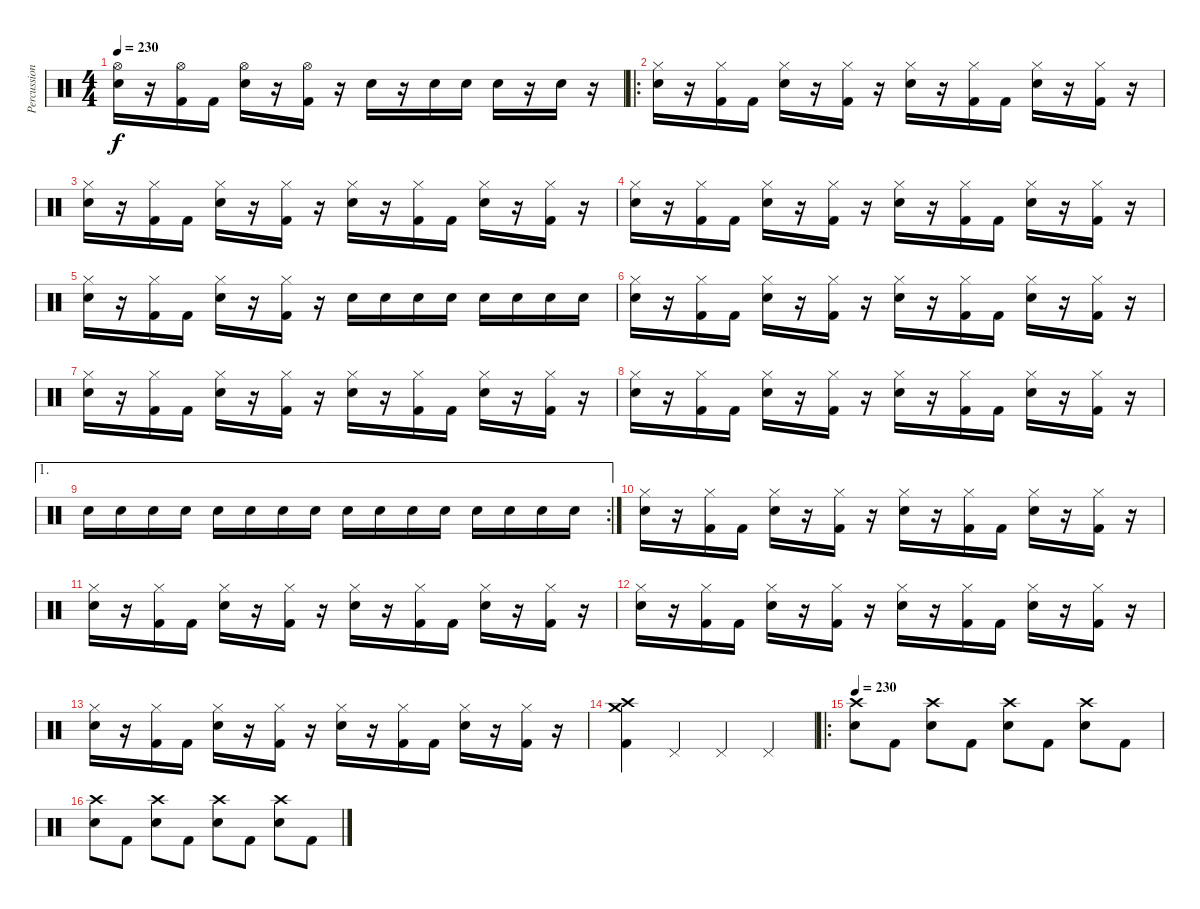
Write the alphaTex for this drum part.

\track ("Percussion" "Percussion") {instrument percussion}
\staff {score}
\articulation defaults
\ts (4 4)
\tempo 230
\clef neutral
\ks c
("Hi-Hat (open)" "Electric Snare (hit)").16{dy f} r.16 ("Hi-Hat (open)" "Kick (hit) 2").16 "Kick (hit) 2".16 ("Hi-Hat (open)" "Electric Snare (hit)").16 r.16 ("Hi-Hat (open)" "Kick (hit) 2").16 r.16 "Electric Snare (hit)".16 r.16 "Electric Snare (hit)".16 "Electric Snare (hit)".16 "Electric Snare (hit)".16 r.16 "Electric Snare (hit)".16 r.16 |
\ro
("Hi-Hat (closed)" "Electric Snare (hit)").16 r.16 ("Hi-Hat (closed)" "Kick (hit) 2").16 "Kick (hit) 2".16 ("Hi-Hat (closed)" "Electric Snare (hit)").16 r.16 ("Hi-Hat (closed)" "Kick (hit) 2").16 r.16 ("Hi-Hat (closed)" "Electric Snare (hit)").16 r.16 ("Hi-Hat (closed)" "Kick (hit) 2").16 "Kick (hit) 2".16 ("Hi-Hat (closed)" "Electric Snare (hit)").16 r.16 ("Hi-Hat (closed)" "Kick (hit) 2").16 r.16 |
("Hi-Hat (closed)" "Electric Snare (hit)").16 r.16 ("Hi-Hat (closed)" "Kick (hit) 2").16 "Kick (hit) 2".16 ("Hi-Hat (closed)" "Electric Snare (hit)").16 r.16 ("Hi-Hat (closed)" "Kick (hit) 2").16 r.16 ("Hi-Hat (closed)" "Electric Snare (hit)").16 r.16 ("Hi-Hat (closed)" "Kick (hit) 2").16 "Kick (hit) 2".16 ("Hi-Hat (closed)" "Electric Snare (hit)").16 r.16 ("Hi-Hat (closed)" "Kick (hit) 2").16 r.16 |
("Hi-Hat (closed)" "Electric Snare (hit)").16 r.16 ("Hi-Hat (closed)" "Kick (hit) 2").16 "Kick (hit) 2".16 ("Hi-Hat (closed)" "Electric Snare (hit)").16 r.16 ("Hi-Hat (closed)" "Kick (hit) 2").16 r.16 ("Hi-Hat (closed)" "Electric Snare (hit)").16 r.16 ("Hi-Hat (closed)" "Kick (hit) 2").16 "Kick (hit) 2".16 ("Hi-Hat (closed)" "Electric Snare (hit)").16 r.16 ("Hi-Hat (closed)" "Kick (hit) 2").16 r.16 |
("Hi-Hat (closed)" "Electric Snare (hit)").16 r.16 ("Hi-Hat (closed)" "Kick (hit) 2").16 "Kick (hit) 2".16 ("Hi-Hat (closed)" "Electric Snare (hit)").16 r.16 ("Hi-Hat (closed)" "Kick (hit) 2").16 r.16 "Electric Snare (hit)".16 "Electric Snare (hit)".16 "Electric Snare (hit)".16 "Electric Snare (hit)".16 "Electric Snare (hit)".16 "Electric Snare (hit)".16 "Electric Snare (hit)".16 "Electric Snare (hit)".16 |
("Hi-Hat (closed)" "Electric Snare (hit)").16 r.16 ("Hi-Hat (closed)" "Kick (hit) 2").16 "Kick (hit) 2".16 ("Hi-Hat (closed)" "Electric Snare (hit)").16 r.16 ("Hi-Hat (closed)" "Kick (hit) 2").16 r.16 ("Hi-Hat (closed)" "Electric Snare (hit)").16 r.16 ("Hi-Hat (closed)" "Kick (hit) 2").16 "Kick (hit) 2".16 ("Hi-Hat (closed)" "Electric Snare (hit)").16 r.16 ("Hi-Hat (closed)" "Kick (hit) 2").16 r.16 |
("Hi-Hat (closed)" "Electric Snare (hit)").16 r.16 ("Hi-Hat (closed)" "Kick (hit) 2").16 "Kick (hit) 2".16 ("Hi-Hat (closed)" "Electric Snare (hit)").16 r.16 ("Hi-Hat (closed)" "Kick (hit) 2").16 r.16 ("Hi-Hat (closed)" "Electric Snare (hit)").16 r.16 ("Hi-Hat (closed)" "Kick (hit) 2").16 "Kick (hit) 2".16 ("Hi-Hat (closed)" "Electric Snare (hit)").16 r.16 ("Hi-Hat (closed)" "Kick (hit) 2").16 r.16 |
("Hi-Hat (closed)" "Electric Snare (hit)").16 r.16 ("Hi-Hat (closed)" "Kick (hit) 2").16 "Kick (hit) 2".16 ("Hi-Hat (closed)" "Electric Snare (hit)").16 r.16 ("Hi-Hat (closed)" "Kick (hit) 2").16 r.16 ("Hi-Hat (closed)" "Electric Snare (hit)").16 r.16 ("Hi-Hat (closed)" "Kick (hit) 2").16 "Kick (hit) 2".16 ("Hi-Hat (closed)" "Electric Snare (hit)").16 r.16 ("Hi-Hat (closed)" "Kick (hit) 2").16 r.16 |
\ae 1
\rc 2 "Electric Snare (hit)".16 "Electric Snare (hit)".16 "Electric Snare (hit)".16 "Electric Snare (hit)".16 "Electric Snare (hit)".16 "Electric Snare (hit)".16 "Electric Snare (hit)".16 "Electric Snare (hit)".16 "Electric Snare (hit)".16 "Electric Snare (hit)".16 "Electric Snare (hit)".16 "Electric Snare (hit)".16 "Electric Snare (hit)".16 "Electric Snare (hit)".16 "Electric Snare (hit)".16 "Electric Snare (hit)".16
|
("Hi-Hat (closed)" "Electric Snare (hit)").16 r.16 ("Hi-Hat (closed)" "Kick (hit) 2").16 "Kick (hit) 2".16 ("Hi-Hat (closed)" "Electric Snare (hit)").16 r.16 ("Hi-Hat (closed)" "Kick (hit) 2").16 r.16 ("Hi-Hat (closed)" "Electric Snare (hit)").16 r.16 ("Hi-Hat (closed)" "Kick (hit) 2").16 "Kick (hit) 2".16 ("Hi-Hat (closed)" "Electric Snare (hit)").16 r.16 ("Hi-Hat (closed)" "Kick (hit) 2").16 r.16 |
("Hi-Hat (closed)" "Electric Snare (hit)").16 r.16 ("Hi-Hat (closed)" "Kick (hit) 2").16 "Kick (hit) 2".16 ("Hi-Hat (closed)" "Electric Snare (hit)").16 r.16 ("Hi-Hat (closed)" "Kick (hit) 2").16 r.16 ("Hi-Hat (closed)" "Electric Snare (hit)").16 r.16 ("Hi-Hat (closed)" "Kick (hit) 2").16 "Kick (hit) 2".16 ("Hi-Hat (closed)" "Electric Snare (hit)").16 r.16 ("Hi-Hat (closed)" "Kick (hit) 2").16 r.16 |
("Hi-Hat (closed)" "Electric Snare (hit)").16 r.16 ("Hi-Hat (closed)" "Kick (hit) 2").16 "Kick (hit) 2".16 ("Hi-Hat (closed)" "Electric Snare (hit)").16 r.16 ("Hi-Hat (closed)" "Kick (hit) 2").16 r.16 ("Hi-Hat (closed)" "Electric Snare (hit)").16 r.16 ("Hi-Hat (closed)" "Kick (hit) 2").16 "Kick (hit) 2".16 ("Hi-Hat (closed)" "Electric Snare (hit)").16 r.16 ("Hi-Hat (closed)" "Kick (hit) 2").16 r.16 |
("Hi-Hat (closed)" "Electric Snare (hit)").16 r.16 ("Hi-Hat (closed)" "Kick (hit) 2").16 "Kick (hit) 2".16 ("Hi-Hat (closed)" "Electric Snare (hit)").16 r.16 ("Hi-Hat (closed)" "Kick (hit) 2").16 r.16 ("Hi-Hat (closed)" "Electric Snare (hit)").16 r.16 ("Hi-Hat (closed)" "Kick (hit) 2").16 "Kick (hit) 2".16 ("Hi-Hat (closed)" "Electric Snare (hit)").16 r.16 ("Hi-Hat (closed)" "Kick (hit) 2").16 r.16 |
("Crash high (hit)" "Crash medium (hit)" "Kick (hit) 2").4 "Pedal Hi-Hat (hit)".4 "Pedal Hi-Hat (hit)".4 "Pedal Hi-Hat (hit)".4 |
\ro
\tempo 230
("Crash high (hit)" "Electric Snare (hit)").8 "Kick (hit) 2".8 ("Crash high (hit)" "Electric Snare (hit)").8 "Kick (hit) 2".8 ("Crash high (hit)" "Electric Snare (hit)").8 "Kick (hit) 2".8 ("Crash high (hit)" "Electric Snare (hit)").8 "Kick (hit) 2".8 |
("Crash high (hit)" "Electric Snare (hit)").8 "Kick (hit) 2".8 ("Crash high (hit)" "Electric Snare (hit)").8 "Kick (hit) 2".8 ("Crash high (hit)" "Electric Snare (hit)").8 "Kick (hit) 2".8 ("Crash high (hit)" "Electric Snare (hit)").8 "Kick (hit) 2".8
